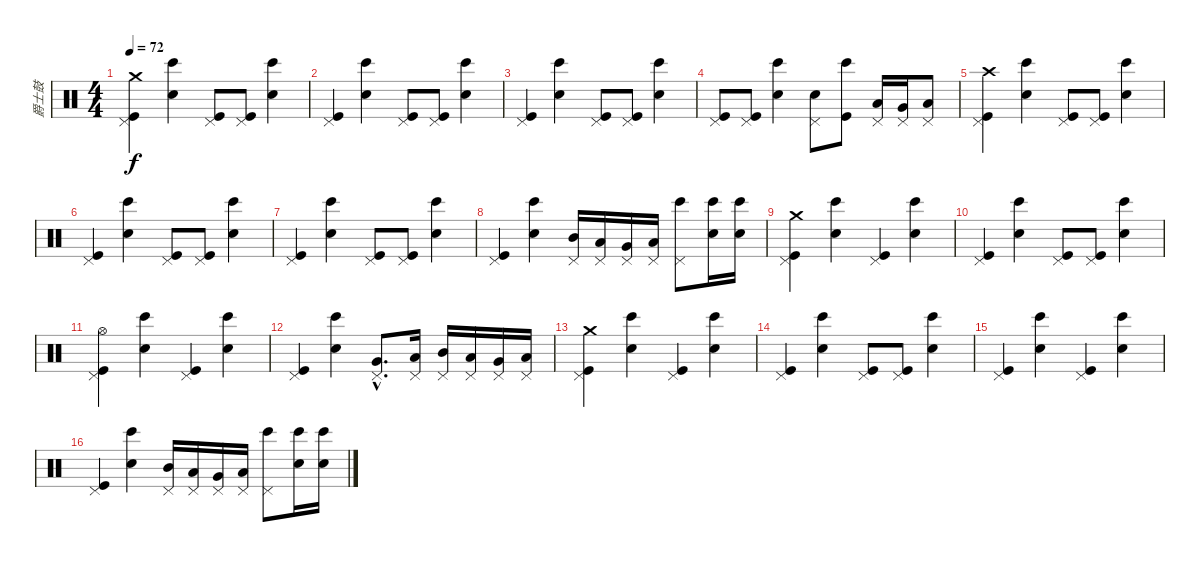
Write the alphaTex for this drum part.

\track ("爵士鼓" "爵士鼓") {instrument percussion}
\staff {score}
\articulation defaults
\ts (4 4)
\tempo 72
\clef neutral
\ks c
("Pedal Hi-Hat (hit)" "Kick (hit)" "Crash medium (hit)").4{dy f} ("Bongo High (hit)" "Electric Snare (hit)").4 ("Pedal Hi-Hat (hit)" "Kick (hit)").8 ("Pedal Hi-Hat (hit)" "Kick (hit)").8 ("Bongo High (hit)" "Electric Snare (hit)").4 |
("Pedal Hi-Hat (hit)" "Kick (hit)").4 ("Bongo High (hit)" "Electric Snare (hit)").4 ("Pedal Hi-Hat (hit)" "Kick (hit)").8 ("Pedal Hi-Hat (hit)" "Kick (hit)").8 ("Bongo High (hit)" "Electric Snare (hit)").4 |
("Pedal Hi-Hat (hit)" "Kick (hit)").4 ("Bongo High (hit)" "Electric Snare (hit)").4 ("Pedal Hi-Hat (hit)" "Kick (hit)").8 ("Pedal Hi-Hat (hit)" "Kick (hit)").8 ("Bongo High (hit)" "Electric Snare (hit)").4 |
("Pedal Hi-Hat (hit)" "Kick (hit)").8 ("Pedal Hi-Hat (hit)" "Kick (hit)").8 ("Bongo High (hit)" "Electric Snare (hit)").4 ("Pedal Hi-Hat (hit)" "Snare (hit) 2").8 ("Bongo High (hit)" "Kick (hit)").8 ("Pedal Hi-Hat (hit)" "Low Tom (hit)").16 ("Pedal Hi-Hat (hit)" "Very Low Tom (hit)").16 ("Pedal Hi-Hat (hit)" "Low Floor Tom (hit)").8 |
("Pedal Hi-Hat (hit)" "Kick (hit)" "Crash high (hit)").4 ("Bongo High (hit)" "Electric Snare (hit)").4 ("Pedal Hi-Hat (hit)" "Kick (hit)").8 ("Pedal Hi-Hat (hit)" "Kick (hit)").8 ("Bongo High (hit)" "Electric Snare (hit)").4 |
("Pedal Hi-Hat (hit)" "Kick (hit)").4 ("Bongo High (hit)" "Electric Snare (hit)").4 ("Pedal Hi-Hat (hit)" "Kick (hit)").8 ("Pedal Hi-Hat (hit)" "Kick (hit)").8 ("Bongo High (hit)" "Electric Snare (hit)").4 |
("Pedal Hi-Hat (hit)" "Kick (hit)").4 ("Bongo High (hit)" "Electric Snare (hit)").4 ("Pedal Hi-Hat (hit)" "Kick (hit)").8 ("Pedal Hi-Hat (hit)" "Kick (hit)").8 ("Bongo High (hit)" "Electric Snare (hit)").4 |
("Pedal Hi-Hat (hit)" "Kick (hit)").4 ("Bongo High (hit)" "Electric Snare (hit)").4 ("Pedal Hi-Hat (hit)" "Mid Tom (hit)").16 ("Pedal Hi-Hat (hit)" "Low Tom (hit)").16 ("Pedal Hi-Hat (hit)" "Very Low Tom (hit)").16 ("Pedal Hi-Hat (hit)" "Low Floor Tom (hit)").16 ("Pedal Hi-Hat (hit)" "Bongo High (hit)").8 ("Bongo High (hit)" "Electric Snare (hit)").16 ("Bongo High (hit)" "Electric Snare (hit)").16 |
("Pedal Hi-Hat (hit)" "Kick (hit)" "Crash medium (hit)").4 ("Bongo High (hit)" "Hand Clap (hit)").4 ("Pedal Hi-Hat (hit)" "Kick (hit)").4 ("Bongo High (hit)" "Hand Clap (hit)").4 |
("Pedal Hi-Hat (hit)" "Kick (hit)").4 ("Bongo High (hit)" "Hand Clap (hit)").4 ("Pedal Hi-Hat (hit)" "Kick (hit)").8 ("Pedal Hi-Hat (hit)" "Kick (hit)").8 ("Bongo High (hit)" "Hand Clap (hit)").4 |
("Pedal Hi-Hat (hit)" "Kick (hit)" "Hi-Hat (open)").4 ("Bongo High (hit)" "Hand Clap (hit)").4 ("Pedal Hi-Hat (hit)" "Kick (hit)").4 ("Bongo High (hit)" "Hand Clap (hit)").4 |
("Pedal Hi-Hat (hit)" "Kick (hit)").4 ("Bongo High (hit)" "Electric Snare (hit)").4 ("Pedal Hi-Hat (hit)"{hac} "Very Low Tom (hit)"{hac}).8{d} ("Pedal Hi-Hat (hit)" "Low Floor Tom (hit)").16 ("Pedal Hi-Hat (hit)" "Mid Tom (hit)").16 ("Pedal Hi-Hat (hit)" "Low Tom (hit)").16 ("Pedal Hi-Hat (hit)" "Very Low Tom (hit)").16 ("Pedal Hi-Hat (hit)" "Low Floor Tom (hit)").16 |
("Pedal Hi-Hat (hit)" "Kick (hit)" "Crash medium (hit)").4 ("Bongo High (hit)" "Hand Clap (hit)").4 ("Pedal Hi-Hat (hit)" "Kick (hit)").4 ("Bongo High (hit)" "Hand Clap (hit)").4 |
("Pedal Hi-Hat (hit)" "Kick (hit)").4 ("Bongo High (hit)" "Hand Clap (hit)").4 ("Pedal Hi-Hat (hit)" "Kick (hit)").8 ("Pedal Hi-Hat (hit)" "Kick (hit)").8 ("Bongo High (hit)" "Hand Clap (hit)").4 |
("Pedal Hi-Hat (hit)" "Kick (hit)").4 ("Bongo High (hit)" "Hand Clap (hit)").4 ("Pedal Hi-Hat (hit)" "Kick (hit)").4 ("Bongo High (hit)" "Hand Clap (hit)").4 |
("Pedal Hi-Hat (hit)" "Kick (hit)").4 ("Bongo High (hit)" "Electric Snare (hit)").4 ("Pedal Hi-Hat (hit)" "Mid Tom (hit)").16 ("Pedal Hi-Hat (hit)" "Low Tom (hit)").16 ("Pedal Hi-Hat (hit)" "Very Low Tom (hit)").16 ("Pedal Hi-Hat (hit)" "Low Floor Tom (hit)").16 ("Pedal Hi-Hat (hit)" "Bongo High (hit)").8 ("Bongo High (hit)" "Electric Snare (hit)").16 ("Bongo High (hit)" "Electric Snare (hit)").16
